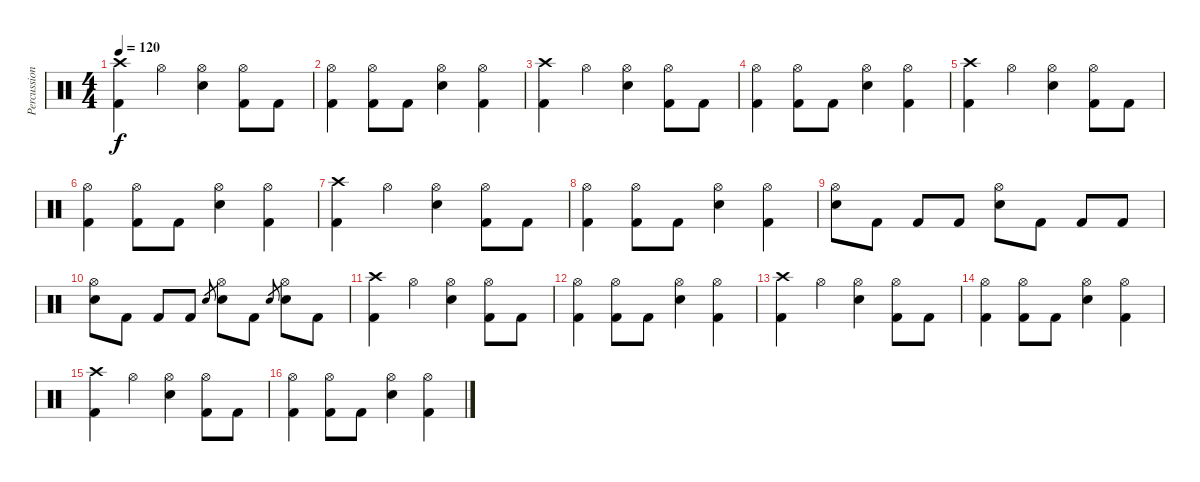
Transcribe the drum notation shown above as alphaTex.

\track ("Percussion" "Percussion") {instrument percussion}
\staff {score}
\articulation defaults
\ts (4 4)
\tempo 120
\clef neutral
\ks c
("Crash high (hit)" "Kick (hit) 2").4{dy f} "Hi-Hat (open)".4 ("Hi-Hat (open)" "Electric Snare (hit)").4 ("Hi-Hat (open)" "Kick (hit) 2").8 "Kick (hit) 2".8 |
("Hi-Hat (open)" "Kick (hit) 2").4 ("Hi-Hat (open)" "Kick (hit) 2").8 "Kick (hit) 2".8 ("Hi-Hat (open)" "Electric Snare (hit)").4 ("Hi-Hat (open)" "Kick (hit) 2").4 |
("Crash high (hit)" "Kick (hit) 2").4 "Hi-Hat (open)".4 ("Hi-Hat (open)" "Electric Snare (hit)").4 ("Hi-Hat (open)" "Kick (hit) 2").8 "Kick (hit) 2".8 |
("Hi-Hat (open)" "Kick (hit) 2").4 ("Hi-Hat (open)" "Kick (hit) 2").8 "Kick (hit) 2".8 ("Hi-Hat (open)" "Electric Snare (hit)").4 ("Hi-Hat (open)" "Kick (hit) 2").4 |
("Crash high (hit)" "Kick (hit) 2").4 "Hi-Hat (open)".4 ("Hi-Hat (open)" "Electric Snare (hit)").4 ("Hi-Hat (open)" "Kick (hit) 2").8 "Kick (hit) 2".8 |
("Hi-Hat (open)" "Kick (hit) 2").4 ("Hi-Hat (open)" "Kick (hit) 2").8 "Kick (hit) 2".8 ("Hi-Hat (open)" "Electric Snare (hit)").4 ("Hi-Hat (open)" "Kick (hit) 2").4 |
("Crash high (hit)" "Kick (hit) 2").4 "Hi-Hat (open)".4 ("Hi-Hat (open)" "Electric Snare (hit)").4 ("Hi-Hat (open)" "Kick (hit) 2").8 "Kick (hit) 2".8 |
("Hi-Hat (open)" "Kick (hit) 2").4 ("Hi-Hat (open)" "Kick (hit) 2").8 "Kick (hit) 2".8 ("Hi-Hat (open)" "Electric Snare (hit)").4 ("Hi-Hat (open)" "Kick (hit) 2").4 |
("Hi-Hat (open)" "Electric Snare (hit)").8 "Kick (hit) 2".8 "Kick (hit) 2".8 "Kick (hit) 2".8 ("Hi-Hat (open)" "Electric Snare (hit)").8 "Kick (hit) 2".8 "Kick (hit) 2".8 "Kick (hit) 2".8 |
("Hi-Hat (open)" "Electric Snare (hit)").8 "Kick (hit) 2".8 "Kick (hit) 2".8 "Kick (hit) 2".8 "Electric Snare (hit)".8{gr} ("Hi-Hat (open)" "Electric Snare (hit)").8 "Kick (hit) 2".8 "Electric Snare (hit)".8{gr} ("Hi-Hat (open)" "Electric Snare (hit)").8 "Kick (hit) 2".8 |
("Crash high (hit)" "Kick (hit) 2").4 "Hi-Hat (open)".4 ("Hi-Hat (open)" "Electric Snare (hit)").4 ("Hi-Hat (open)" "Kick (hit) 2").8 "Kick (hit) 2".8 |
("Hi-Hat (open)" "Kick (hit) 2").4 ("Hi-Hat (open)" "Kick (hit) 2").8 "Kick (hit) 2".8 ("Hi-Hat (open)" "Electric Snare (hit)").4 ("Hi-Hat (open)" "Kick (hit) 2").4 |
("Crash high (hit)" "Kick (hit) 2").4 "Hi-Hat (open)".4 ("Hi-Hat (open)" "Electric Snare (hit)").4 ("Hi-Hat (open)" "Kick (hit) 2").8 "Kick (hit) 2".8 |
("Hi-Hat (open)" "Kick (hit) 2").4 ("Hi-Hat (open)" "Kick (hit) 2").8 "Kick (hit) 2".8 ("Hi-Hat (open)" "Electric Snare (hit)").4 ("Hi-Hat (open)" "Kick (hit) 2").4 |
("Crash high (hit)" "Kick (hit) 2").4 "Hi-Hat (open)".4 ("Hi-Hat (open)" "Electric Snare (hit)").4 ("Hi-Hat (open)" "Kick (hit) 2").8 "Kick (hit) 2".8 |
("Hi-Hat (open)" "Kick (hit) 2").4 ("Hi-Hat (open)" "Kick (hit) 2").8 "Kick (hit) 2".8 ("Hi-Hat (open)" "Electric Snare (hit)").4 ("Hi-Hat (open)" "Kick (hit) 2").4
